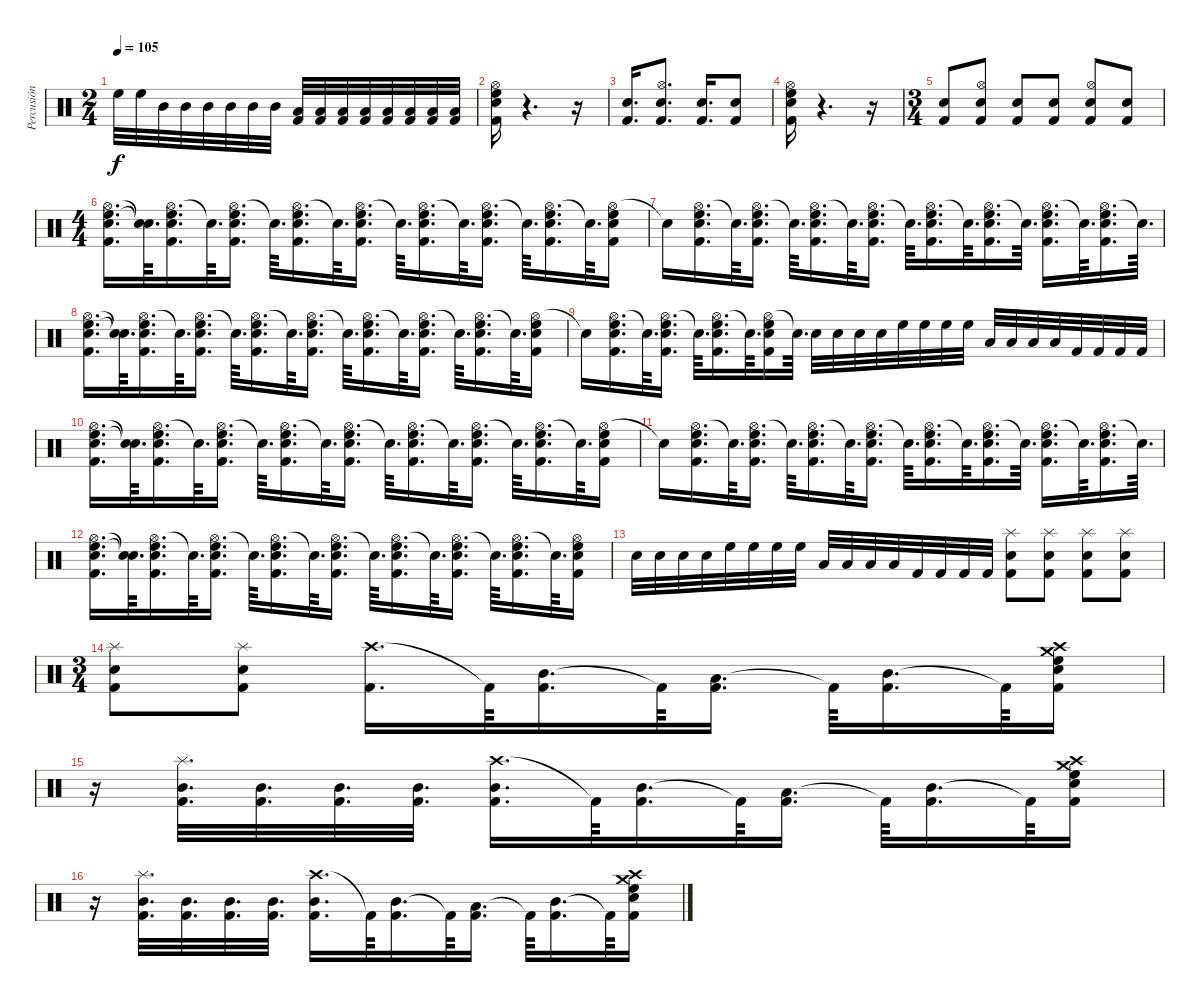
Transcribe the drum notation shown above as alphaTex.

\track ("Percusión" "Percusión") {instrument percussion}
\staff {score}
\articulation defaults
\ts (2 4)
\tempo 105
\clef neutral
\ks c "High Floor Tom (hit)".32{dy f} "High Floor Tom (hit)".32 "Mid Tom (hit)".32 "Mid Tom (hit)".32 "Mid Tom (hit)".32 "Mid Tom (hit)".32 "Mid Tom (hit)".32 "Mid Tom (hit)".32
("Low Tom (hit)" "Kick (hit) 2").32 ("Low Tom (hit)" "Kick (hit) 2").32 ("Low Tom (hit)" "Kick (hit) 2").32 ("Low Tom (hit)" "Kick (hit) 2").32 ("Low Floor Tom (hit)" "Kick (hit) 2").32 ("Low Floor Tom (hit)" "Kick (hit) 2").32 ("Low Floor Tom (hit)" "Kick (hit) 2").32 ("Low Floor Tom (hit)" "Kick (hit) 2").32 |
("Hi-Hat (open)" "High Floor Tom (hit)" "Snare (hit) 2" "Kick (hit) 2").16 r.4{d} r.16 |
("Snare (hit) 2" "Kick (hit) 2").16{d} ("Hi-Hat (open)" "Snare (hit) 2" "Kick (hit) 2").8{d} ("Snare (hit) 2" "Kick (hit) 2").16{d} ("Snare (hit) 2" "Kick (hit) 2").8 |
("Hi-Hat (open)" "High Floor Tom (hit)" "Snare (hit) 2" "Kick (hit) 2").16 r.4{d} r.16 |
\ts (3 4)
("Snare (hit) 2" "Kick (hit) 2").8 ("Hi-Hat (open)" "Snare (hit) 2" "Kick (hit) 2").8 ("Snare (hit) 2" "Kick (hit) 2").8 ("Snare (hit) 2" "Kick (hit) 2").8 ("Hi-Hat (open)" "Snare (hit) 2" "Kick (hit) 2").8 ("Snare (hit) 2" "Kick (hit) 2").8 |
\ts (4 4)
("Hi-Hat (open)" "High Floor Tom (hit)" "Snare (hit) 2" "Kick (hit) 2").16{d} ("Snare (hit)"{t} "Snare (hit)"{t}).64{d} ("Hi-Hat (open)" "High Floor Tom (hit)" "Snare (hit) 2" "Kick (hit) 2").16{d} "Snare (hit)"{t}.64{d} ("Hi-Hat (open)" "High Floor Tom (hit)" "Snare (hit) 2" "Kick (hit) 2").16{d} "Snare (hit)"{t}.64{d} ("Hi-Hat (open)" "High Floor Tom (hit)" "Snare (hit) 2" "Kick (hit) 2").16{d} "Snare (hit)"{t}.64{d} ("Hi-Hat (open)" "High Floor Tom (hit)" "Snare (hit) 2" "Kick (hit) 2").16{d} "Snare (hit)"{t}.64{d} ("Hi-Hat (open)" "High Floor Tom (hit)" "Snare (hit) 2" "Kick (hit) 2").16{d} "Snare (hit)"{t}.64{d} ("Hi-Hat (open)" "High Floor Tom (hit)" "Snare (hit) 2" "Kick (hit) 2").16{d} "Snare (hit)"{t}.64{d} ("Hi-Hat (open)" "High Floor Tom (hit)" "Snare (hit) 2" "Kick (hit) 2").16{d} "Snare (hit)"{t}.64{d} ("Hi-Hat (open)" "High Floor Tom (hit)" "Snare (hit) 2" "Kick (hit) 2").16 |
"Snare (hit)"{t}.16 ("Hi-Hat (open)" "High Floor Tom (hit)" "Snare (hit) 2" "Kick (hit) 2").16{d} "Snare (hit)"{t}.64{d} ("Hi-Hat (open)" "High Floor Tom (hit)" "Snare (hit) 2" "Kick (hit) 2").16{d} "Snare (hit)"{t}.64{d} ("Hi-Hat (open)" "High Floor Tom (hit)" "Snare (hit) 2" "Kick (hit) 2").16{d} "Snare (hit)"{t}.64{d} ("Hi-Hat (open)" "High Floor Tom (hit)" "Snare (hit) 2" "Kick (hit) 2").16{d} "Snare (hit)"{t}.64{d} ("Hi-Hat (open)" "High Floor Tom (hit)" "Snare (hit) 2" "Kick (hit) 2").16{d} "Snare (hit)"{t}.64{d} ("Hi-Hat (open)" "High Floor Tom (hit)" "Snare (hit) 2" "Kick (hit) 2").16{d} "Snare (hit)"{t}.64{d} ("Hi-Hat (open)" "High Floor Tom (hit)" "Snare (hit) 2" "Kick (hit) 2").16{d} "Snare (hit)"{t}.64{d} ("Hi-Hat (open)" "High Floor Tom (hit)" "Snare (hit) 2" "Kick (hit) 2").16{d} "Snare (hit)"{t}.64{d} |
("Hi-Hat (open)" "High Floor Tom (hit)" "Snare (hit) 2" "Kick (hit) 2").16{d} ("Snare (hit)"{t} "Snare (hit)"{t}).64{d} ("Hi-Hat (open)" "High Floor Tom (hit)" "Snare (hit) 2" "Kick (hit) 2").16{d} "Snare (hit)"{t}.64{d} ("Hi-Hat (open)" "High Floor Tom (hit)" "Snare (hit) 2" "Kick (hit) 2").16{d} "Snare (hit)"{t}.64{d} ("Hi-Hat (open)" "High Floor Tom (hit)" "Snare (hit) 2" "Kick (hit) 2").16{d} "Snare (hit)"{t}.64{d} ("Hi-Hat (open)" "High Floor Tom (hit)" "Snare (hit) 2" "Kick (hit) 2").16{d} "Snare (hit)"{t}.64{d} ("Hi-Hat (open)" "High Floor Tom (hit)" "Snare (hit) 2" "Kick (hit) 2").16{d} "Snare (hit)"{t}.64{d} ("Hi-Hat (open)" "High Floor Tom (hit)" "Snare (hit) 2" "Kick (hit) 2").16{d} "Snare (hit)"{t}.64{d} ("Hi-Hat (open)" "High Floor Tom (hit)" "Snare (hit) 2" "Kick (hit) 2").16{d} "Snare (hit)"{t}.64{d} ("Hi-Hat (open)" "High Floor Tom (hit)" "Snare (hit) 2" "Kick (hit) 2").16 |
"Snare (hit)"{t}.16 ("Hi-Hat (open)" "High Floor Tom (hit)" "Snare (hit) 2" "Kick (hit) 2").16{d} "Snare (hit)"{t}.64{d} ("Hi-Hat (open)" "High Floor Tom (hit)" "Snare (hit) 2" "Kick (hit) 2").16{d} "Snare (hit)"{t}.64{d} ("Hi-Hat (open)" "High Floor Tom (hit)" "Snare (hit) 2" "Kick (hit) 2").16{d} "Snare (hit)"{t}.64{d} ("Hi-Hat (open)" "High Floor Tom (hit)" "Snare (hit) 2" "Kick (hit) 2").16 "Snare (hit)"{t}.64{d} "Snare (hit) 2".32 "Snare (hit) 2".32 "Snare (hit) 2".32 "Snare (hit) 2".32 "High Floor Tom (hit)".32 "High Floor Tom (hit)".32 "High Floor Tom (hit)".32 "High Floor Tom (hit)".32 "Low Tom (hit)".32 "Low Tom (hit)".32 "Low Tom (hit)".32 "Low Tom (hit)".32 "Kick (hit) 2".32 "Kick (hit) 2".32 "Kick (hit) 2".32 "Kick (hit) 2".32 |
("Hi-Hat (open)" "High Floor Tom (hit)" "Snare (hit) 2" "Kick (hit) 2").16{d} ("Snare (hit)"{t} "Snare (hit)"{t}).64{d} ("Hi-Hat (open)" "High Floor Tom (hit)" "Snare (hit) 2" "Kick (hit) 2").16{d} "Snare (hit)"{t}.64{d} ("Hi-Hat (open)" "High Floor Tom (hit)" "Snare (hit) 2" "Kick (hit) 2").16{d} "Snare (hit)"{t}.64{d} ("Hi-Hat (open)" "High Floor Tom (hit)" "Snare (hit) 2" "Kick (hit) 2").16{d} "Snare (hit)"{t}.64{d} ("Hi-Hat (open)" "High Floor Tom (hit)" "Snare (hit) 2" "Kick (hit) 2").16{d} "Snare (hit)"{t}.64{d} ("Hi-Hat (open)" "High Floor Tom (hit)" "Snare (hit) 2" "Kick (hit) 2").16{d} "Snare (hit)"{t}.64{d} ("Hi-Hat (open)" "High Floor Tom (hit)" "Snare (hit) 2" "Kick (hit) 2").16{d} "Snare (hit)"{t}.64{d} ("Hi-Hat (open)" "High Floor Tom (hit)" "Snare (hit) 2" "Kick (hit) 2").16{d} "Snare (hit)"{t}.64{d} ("Hi-Hat (open)" "High Floor Tom (hit)" "Snare (hit) 2" "Kick (hit) 2").16 |
"Snare (hit)"{t}.16 ("Hi-Hat (open)" "High Floor Tom (hit)" "Snare (hit) 2" "Kick (hit) 2").16{d} "Snare (hit)"{t}.64{d} ("Hi-Hat (open)" "High Floor Tom (hit)" "Snare (hit) 2" "Kick (hit) 2").16{d} "Snare (hit)"{t}.64{d} ("Hi-Hat (open)" "High Floor Tom (hit)" "Snare (hit) 2" "Kick (hit) 2").16{d} "Snare (hit)"{t}.64{d} ("Hi-Hat (open)" "High Floor Tom (hit)" "Snare (hit) 2" "Kick (hit) 2").16{d} "Snare (hit)"{t}.64{d} ("Hi-Hat (open)" "High Floor Tom (hit)" "Snare (hit) 2" "Kick (hit) 2").16{d} "Snare (hit)"{t}.64{d} ("Hi-Hat (open)" "High Floor Tom (hit)" "Snare (hit) 2" "Kick (hit) 2").16{d} "Snare (hit)"{t}.64{d} ("Hi-Hat (open)" "High Floor Tom (hit)" "Snare (hit) 2" "Kick (hit) 2").16{d} "Snare (hit)"{t}.64{d} ("Hi-Hat (open)" "High Floor Tom (hit)" "Snare (hit) 2" "Kick (hit) 2").16{d} "Snare (hit)"{t}.64{d} |
("Hi-Hat (open)" "High Floor Tom (hit)" "Snare (hit) 2" "Kick (hit) 2").16{d} ("Snare (hit)"{t} "Snare (hit)"{t}).64{d} ("Hi-Hat (open)" "High Floor Tom (hit)" "Snare (hit) 2" "Kick (hit) 2").16{d} "Snare (hit)"{t}.64{d} ("Hi-Hat (open)" "High Floor Tom (hit)" "Snare (hit) 2" "Kick (hit) 2").16{d} "Snare (hit)"{t}.64{d} ("Hi-Hat (open)" "High Floor Tom (hit)" "Snare (hit) 2" "Kick (hit) 2").16{d} "Snare (hit)"{t}.64{d} ("Hi-Hat (open)" "High Floor Tom (hit)" "Snare (hit) 2" "Kick (hit) 2").16{d} "Snare (hit)"{t}.64{d} ("Hi-Hat (open)" "High Floor Tom (hit)" "Snare (hit) 2" "Kick (hit) 2").16{d} "Snare (hit)"{t}.64{d} ("Hi-Hat (open)" "High Floor Tom (hit)" "Snare (hit) 2" "Kick (hit) 2").16{d} "Snare (hit)"{t}.64{d} ("Hi-Hat (open)" "High Floor Tom (hit)" "Snare (hit) 2" "Kick (hit) 2").16{d} "Snare (hit)"{t}.64{d} ("Hi-Hat (open)" "High Floor Tom (hit)" "Snare (hit) 2" "Kick (hit) 2").16 |
"Snare (hit) 2".32 "Snare (hit) 2".32 "Snare (hit) 2".32 "Snare (hit) 2".32 "High Floor Tom (hit)".32 "High Floor Tom (hit)".32 "High Floor Tom (hit)".32 "High Floor Tom (hit)".32 "Low Tom (hit)".32 "Low Tom (hit)".32 "Low Tom (hit)".32 "Low Tom (hit)".32 "Kick (hit) 2".32 "Kick (hit) 2".32 "Kick (hit) 2".32 "Kick (hit) 2".32 ("Splash (hit)" "Snare (hit) 2" "Kick (hit) 2").8 ("Splash (hit)" "Snare (hit) 2" "Kick (hit) 2").8 ("Splash (hit)" "Snare (hit) 2" "Kick (hit) 2").8 ("Splash (hit)" "Snare (hit) 2" "Kick (hit) 2").8 |
\ts (3 4)
("Splash (hit)" "Snare (hit) 2" "Kick (hit) 2").8 ("Splash (hit)" "Snare (hit) 2" "Kick (hit) 2").8 ("Crash high (hit)" "Kick (hit) 2").16{d} "Kick (hit) 2"{t}.64 ("Mid Tom (hit)" "Kick (hit) 2").16{d} "Kick (hit) 2"{t}.64 ("Low Tom (hit)" "Kick (hit) 2").16{d} "Kick (hit) 2"{t}.64 ("Mid Tom (hit)" "Kick (hit) 2").16{d} "Kick (hit) 2"{t}.64 ("Crash medium (hit)" "Crash high (hit)" "High Floor Tom (hit)" "Snare (hit) 2" "Kick (hit) 2").16 |
r.16 ("Splash (hit)" "Mid Tom (hit)" "Kick (hit) 2").32{d} ("Mid Tom (hit)" "Kick (hit) 2").32{d} ("Mid Tom (hit)" "Kick (hit) 2").32{d} ("Mid Tom (hit)" "Kick (hit) 2").32{d} ("Crash high (hit)" "Mid Tom (hit)" "Kick (hit) 2").16{d} "Kick (hit) 2"{t}.64 ("Mid Tom (hit)" "Kick (hit) 2").16{d} "Kick (hit) 2"{t}.64 ("Low Tom (hit)" "Kick (hit) 2").16{d} "Kick (hit) 2"{t}.64 ("Mid Tom (hit)" "Kick (hit) 2").16{d} "Kick (hit) 2"{t}.64 ("Crash medium (hit)" "Crash high (hit)" "High Floor Tom (hit)" "Snare (hit) 2" "Kick (hit) 2").16 |
r.16 ("Splash (hit)" "Mid Tom (hit)" "Kick (hit) 2").32{d} ("Mid Tom (hit)" "Kick (hit) 2").32{d} ("Mid Tom (hit)" "Kick (hit) 2").32{d} ("Mid Tom (hit)" "Kick (hit) 2").32{d} ("Crash high (hit)" "Mid Tom (hit)" "Kick (hit) 2").16{d} "Kick (hit) 2"{t}.64 ("Mid Tom (hit)" "Kick (hit) 2").16{d} "Kick (hit) 2"{t}.64 ("Low Tom (hit)" "Kick (hit) 2").16{d} "Kick (hit) 2"{t}.64 ("Mid Tom (hit)" "Kick (hit) 2").16{d} "Kick (hit) 2"{t}.64 ("Crash medium (hit)" "Crash high (hit)" "High Floor Tom (hit)" "Snare (hit) 2" "Kick (hit) 2").16
